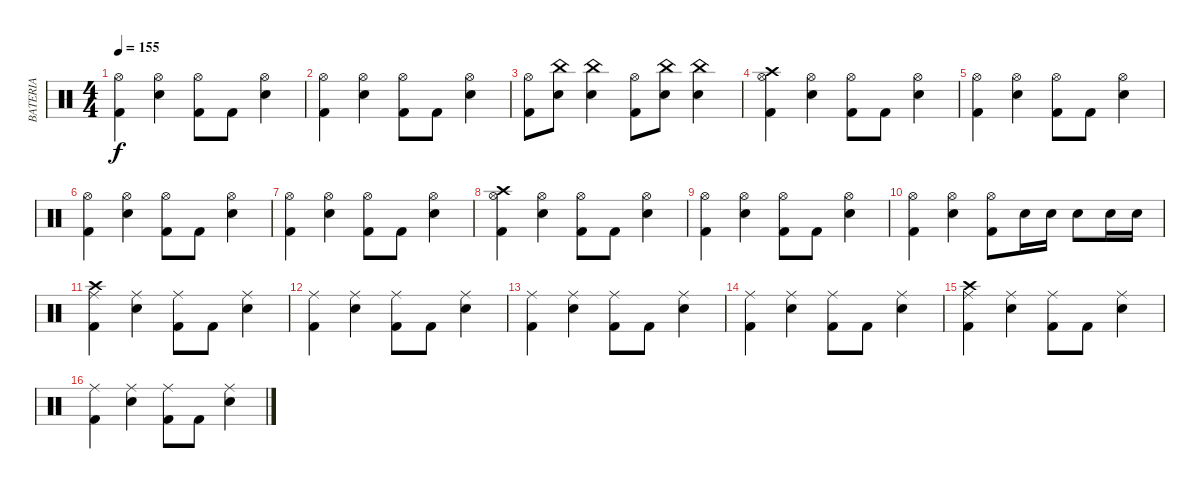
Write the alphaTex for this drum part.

\track ("BATERIA" "BATERIA") {instrument percussion}
\staff {score}
\articulation defaults
\ts (4 4)
\tempo 155
\clef neutral
\ks c
("Hi-Hat (open)" "Kick (hit) 2").4{dy f} ("Hi-Hat (open)" "Snare (hit) 2").4 ("Hi-Hat (open)" "Kick (hit) 2").8 "Kick (hit) 2".8 ("Hi-Hat (open)" "Snare (hit) 2").4 |
("Hi-Hat (open)" "Kick (hit) 2").4 ("Hi-Hat (open)" "Snare (hit) 2").4 ("Hi-Hat (open)" "Kick (hit) 2").8 "Kick (hit) 2".8 ("Hi-Hat (open)" "Snare (hit) 2").4 |
("Hi-Hat (open)" "Kick (hit) 2").8 ("China (hit)" "Snare (hit) 2").8 ("China (hit)" "Snare (hit) 2").4 ("Hi-Hat (open)" "Kick (hit) 2").8 ("China (hit)" "Snare (hit) 2").8 ("China (hit)" "Snare (hit) 2").4 |
("Crash high (hit)" "Hi-Hat (open)" "Kick (hit) 2").4 ("Hi-Hat (open)" "Snare (hit) 2").4 ("Hi-Hat (open)" "Kick (hit) 2").8 "Kick (hit) 2".8 ("Hi-Hat (open)" "Snare (hit) 2").4 |
("Hi-Hat (open)" "Kick (hit) 2").4 ("Hi-Hat (open)" "Snare (hit) 2").4 ("Hi-Hat (open)" "Kick (hit) 2").8 "Kick (hit) 2".8 ("Hi-Hat (open)" "Snare (hit) 2").4 |
("Hi-Hat (open)" "Kick (hit) 2").4 ("Hi-Hat (open)" "Snare (hit) 2").4 ("Hi-Hat (open)" "Kick (hit) 2").8 "Kick (hit) 2".8 ("Hi-Hat (open)" "Snare (hit) 2").4 |
("Hi-Hat (open)" "Kick (hit) 2").4 ("Hi-Hat (open)" "Snare (hit) 2").4 ("Hi-Hat (open)" "Kick (hit) 2").8 "Kick (hit) 2".8 ("Hi-Hat (open)" "Snare (hit) 2").4 |
("Crash high (hit)" "Hi-Hat (open)" "Kick (hit) 2").4 ("Hi-Hat (open)" "Snare (hit) 2").4 ("Hi-Hat (open)" "Kick (hit) 2").8 "Kick (hit) 2".8 ("Hi-Hat (open)" "Snare (hit) 2").4 |
("Hi-Hat (open)" "Kick (hit) 2").4 ("Hi-Hat (open)" "Snare (hit) 2").4 ("Hi-Hat (open)" "Kick (hit) 2").8 "Kick (hit) 2".8 ("Hi-Hat (open)" "Snare (hit) 2").4 |
("Hi-Hat (open)" "Kick (hit) 2").4 ("Hi-Hat (open)" "Snare (hit) 2").4 ("Hi-Hat (open)" "Kick (hit) 2").8 "Snare (hit) 2".16 "Snare (hit) 2".16 "Snare (hit) 2".8 "Snare (hit) 2".16 "Snare (hit) 2".16 |
("Crash high (hit)" "Ride (middle)" "Kick (hit) 2").4 ("Ride (middle)" "Snare (hit) 2").4 ("Ride (middle)" "Kick (hit) 2").8 "Kick (hit) 2".8 ("Ride (middle)" "Snare (hit) 2").4 |
("Ride (middle)" "Kick (hit) 2").4 ("Ride (middle)" "Snare (hit) 2").4 ("Ride (middle)" "Kick (hit) 2").8 "Kick (hit) 2".8 ("Ride (middle)" "Snare (hit) 2").4 |
("Ride (middle)" "Kick (hit) 2").4 ("Ride (middle)" "Snare (hit) 2").4 ("Ride (middle)" "Kick (hit) 2").8 "Kick (hit) 2".8 ("Ride (middle)" "Snare (hit) 2").4 |
("Ride (middle)" "Kick (hit) 2").4 ("Ride (middle)" "Snare (hit) 2").4 ("Ride (middle)" "Kick (hit) 2").8 "Kick (hit) 2".8 ("Ride (middle)" "Snare (hit) 2").4 |
("Crash high (hit)" "Ride (middle)" "Kick (hit) 2").4 ("Ride (middle)" "Snare (hit) 2").4 ("Ride (middle)" "Kick (hit) 2").8 "Kick (hit) 2".8 ("Ride (middle)" "Snare (hit) 2").4 |
("Ride (middle)" "Kick (hit) 2").4 ("Ride (middle)" "Snare (hit) 2").4 ("Ride (middle)" "Kick (hit) 2").8 "Kick (hit) 2".8 ("Ride (middle)" "Snare (hit) 2").4
